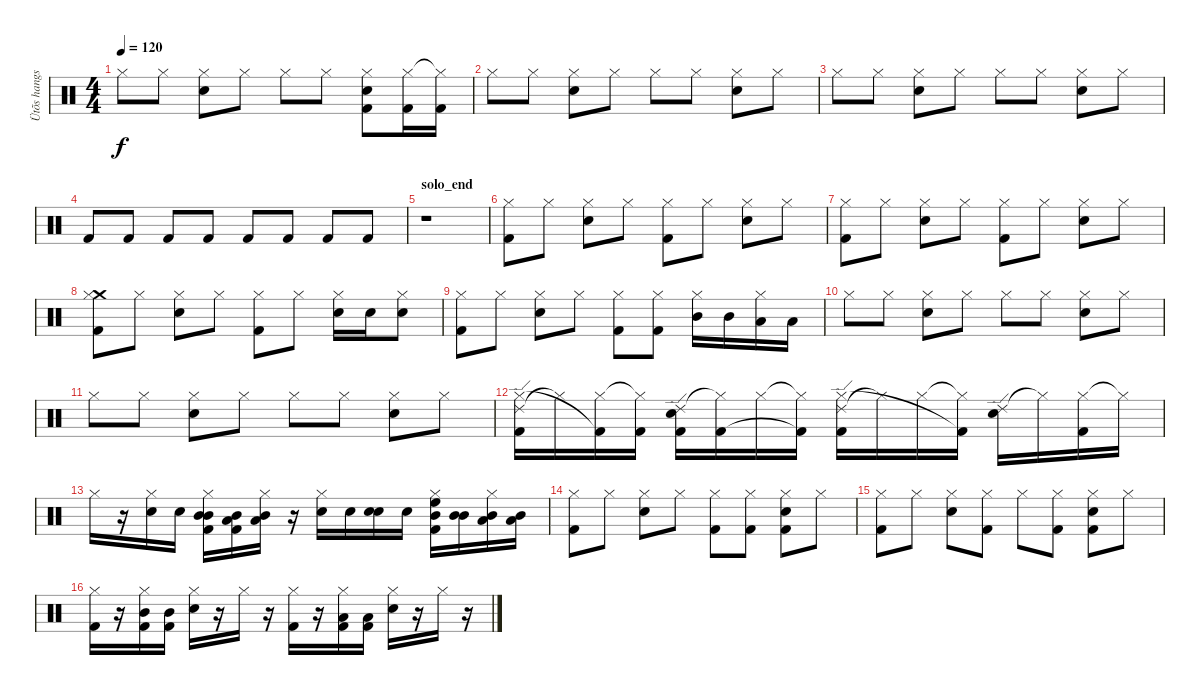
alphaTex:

\track ("Ütõs hangszer" "Ütõs hangs") {instrument percussion}
\staff {score}
\articulation defaults
\ts (4 4)
\tempo 120
\clef neutral
\ks c "Hi-Hat (closed)".8{dy f} "Hi-Hat (closed)".8
("Hi-Hat (closed)" "Snare (hit) 2").8 "Hi-Hat (closed)".8 "Hi-Hat (closed)".8 "Hi-Hat (closed)".8 ("Hi-Hat (closed)" "Snare (hit) 2" "Kick (hit) 2").8 ("Hi-Hat (closed)" "Kick (hit) 2").16 ("Hi-Hat (closed)"{t} "Kick (hit) 2").16 |
"Hi-Hat (closed)".8 "Hi-Hat (closed)".8 ("Hi-Hat (closed)" "Snare (hit) 2").8 "Hi-Hat (closed)".8 "Hi-Hat (closed)".8 "Hi-Hat (closed)".8 ("Hi-Hat (closed)" "Snare (hit) 2").8 "Hi-Hat (closed)".8 |
"Hi-Hat (closed)".8 "Hi-Hat (closed)".8 ("Hi-Hat (closed)" "Snare (hit) 2").8 "Hi-Hat (closed)".8 "Hi-Hat (closed)".8 "Hi-Hat (closed)".8 ("Hi-Hat (closed)" "Snare (hit) 2").8 "Hi-Hat (closed)".8 |
"Kick (hit) 2".8 "Kick (hit) 2".8 "Kick (hit) 2".8 "Kick (hit) 2".8 "Kick (hit) 2".8 "Kick (hit) 2".8 "Kick (hit) 2".8 "Kick (hit) 2".8 |
\section ("" "solo_end")
r.1 |
("Hi-Hat (closed)" "Kick (hit) 2").8 "Hi-Hat (closed)".8 ("Hi-Hat (closed)" "Snare (hit) 2").8 "Hi-Hat (closed)".8 ("Hi-Hat (closed)" "Kick (hit) 2").8 "Hi-Hat (closed)".8 ("Hi-Hat (closed)" "Snare (hit) 2").8 "Hi-Hat (closed)".8 |
("Hi-Hat (closed)" "Kick (hit) 2").8 "Hi-Hat (closed)".8 ("Hi-Hat (closed)" "Snare (hit) 2").8 "Hi-Hat (closed)".8 ("Hi-Hat (closed)" "Kick (hit) 2").8 "Hi-Hat (closed)".8 ("Hi-Hat (closed)" "Snare (hit) 2").8 "Hi-Hat (closed)".8 |
("Crash medium (hit)" "Hi-Hat (closed)" "Kick (hit) 2").8 "Hi-Hat (closed)".8 ("Hi-Hat (closed)" "Snare (hit) 2").8 "Hi-Hat (closed)".8 ("Hi-Hat (closed)" "Kick (hit) 2").8 "Hi-Hat (closed)".8 ("Hi-Hat (closed)" "Snare (hit) 2").16 "Snare (hit) 2".16 ("Hi-Hat (closed)" "Snare (hit) 2").8 |
("Hi-Hat (closed)" "Kick (hit) 2").8 "Hi-Hat (closed)".8 ("Hi-Hat (closed)" "Snare (hit) 2").8 "Hi-Hat (closed)".8 ("Hi-Hat (closed)" "Kick (hit) 2").8 ("Hi-Hat (closed)" "Kick (hit) 2").8 ("Hi-Hat (closed)" "Mid Tom (hit)").16 "Mid Tom (hit)".16 ("Hi-Hat (closed)" "Low Floor Tom (hit)").16 "Low Floor Tom (hit)".16 |
"Hi-Hat (closed)".8 "Hi-Hat (closed)".8 ("Hi-Hat (closed)" "Snare (hit) 2").8 "Hi-Hat (closed)".8 "Hi-Hat (closed)".8 "Hi-Hat (closed)".8 ("Hi-Hat (closed)" "Snare (hit) 2").8 "Hi-Hat (closed)".8 |
"Hi-Hat (closed)".8 "Hi-Hat (closed)".8 ("Hi-Hat (closed)" "Snare (hit) 2").8 "Hi-Hat (closed)".8 "Hi-Hat (closed)".8 "Hi-Hat (closed)".8 ("Hi-Hat (closed)" "Snare (hit) 2").8 "Hi-Hat (closed)".8 |
("Ride (edge) 2" "Hi-Hat (closed)" "Kick (hit) 2").16 "Hi-Hat (closed)"{t}.16 ("Hi-Hat (closed)" "Kick (hit) 2"{t}).16 ("Hi-Hat (closed)"{t} "Kick (hit) 2").16 ("Ride (edge) 2" "Snare (hit) 2" "Kick (hit) 2").16 ("Hi-Hat (closed)"{t} "Kick (hit) 2").16 "Hi-Hat (closed)".16 ("Hi-Hat (closed)"{t} "Kick (hit) 2"{t}).16 ("Ride (edge) 2" "Hi-Hat (closed)" "Kick (hit) 2").16 "Hi-Hat (closed)"{t}.16 "Hi-Hat (closed)".16 ("Hi-Hat (closed)"{t} "Kick (hit) 2"{t}).16 ("Ride (edge) 2" "Snare (hit) 2").16 "Hi-Hat (closed)"{t}.16 ("Hi-Hat (closed)" "Kick (hit) 2").16 "Hi-Hat (closed)"{t}.16 |
"Hi-Hat (closed)".16 r.16 ("Hi-Hat (closed)" "Snare (hit) 2").16 "Snare (hit) 2".16 ("Hi-Hat (closed)" "Mid Tom (hit)" "Mid Tom (hit)" "Kick (hit) 2").16 ("Low Tom (hit)" "Mid Tom (hit)" "Kick (hit) 2").16 ("Hi-Hat (closed)" "Low Floor Tom (hit)" "Mid Tom (hit)").16 r.16 ("Hi-Hat (closed)" "Snare (hit) 2").16 "Snare (hit) 2".16 ("Snare (hit)" "Snare (hit) 2").16 "Snare (hit) 2".16 ("Hi-Hat (closed)" "High Floor Tom (hit)" "Mid Tom (hit)" "Kick (hit) 2").16 ("Mid Tom (hit)" "Mid Tom (hit)").16 ("Hi-Hat (closed)" "Low Tom (hit)" "Mid Tom (hit)").16 ("Low Floor Tom (hit)" "Mid Tom (hit)").16 |
("Hi-Hat (closed)" "Kick (hit) 2").8 "Hi-Hat (closed)".8 ("Hi-Hat (closed)" "Snare (hit) 2").8 "Hi-Hat (closed)".8 ("Hi-Hat (closed)" "Kick (hit) 2").8 ("Hi-Hat (closed)" "Kick (hit) 2").8 ("Hi-Hat (closed)" "Snare (hit) 2" "Kick (hit) 2").8 "Hi-Hat (closed)".8 |
("Hi-Hat (closed)" "Kick (hit) 2").8 "Hi-Hat (closed)".8 ("Hi-Hat (closed)" "Snare (hit) 2").8 ("Hi-Hat (closed)" "Kick (hit) 2").8 "Hi-Hat (closed)".8 ("Hi-Hat (closed)" "Kick (hit) 2").8 ("Hi-Hat (closed)" "Snare (hit) 2" "Kick (hit) 2").8 "Hi-Hat (closed)".8 |
("Hi-Hat (closed)" "Kick (hit) 2").16 r.16 ("Hi-Hat (closed)" "Mid Tom (hit)" "Kick (hit) 2").16 ("Mid Tom (hit)" "Kick (hit) 2").16 ("Hi-Hat (closed)" "Snare (hit) 2").16 r.16 "Hi-Hat (closed)".16 r.16 ("Hi-Hat (closed)" "Kick (hit) 2").16 r.16 ("Hi-Hat (closed)" "Low Tom (hit)" "Kick (hit) 2").16 ("Low Tom (hit)" "Kick (hit) 2").16 ("Hi-Hat (closed)" "Snare (hit) 2").16 r.16 "Hi-Hat (closed)".16 r.16
